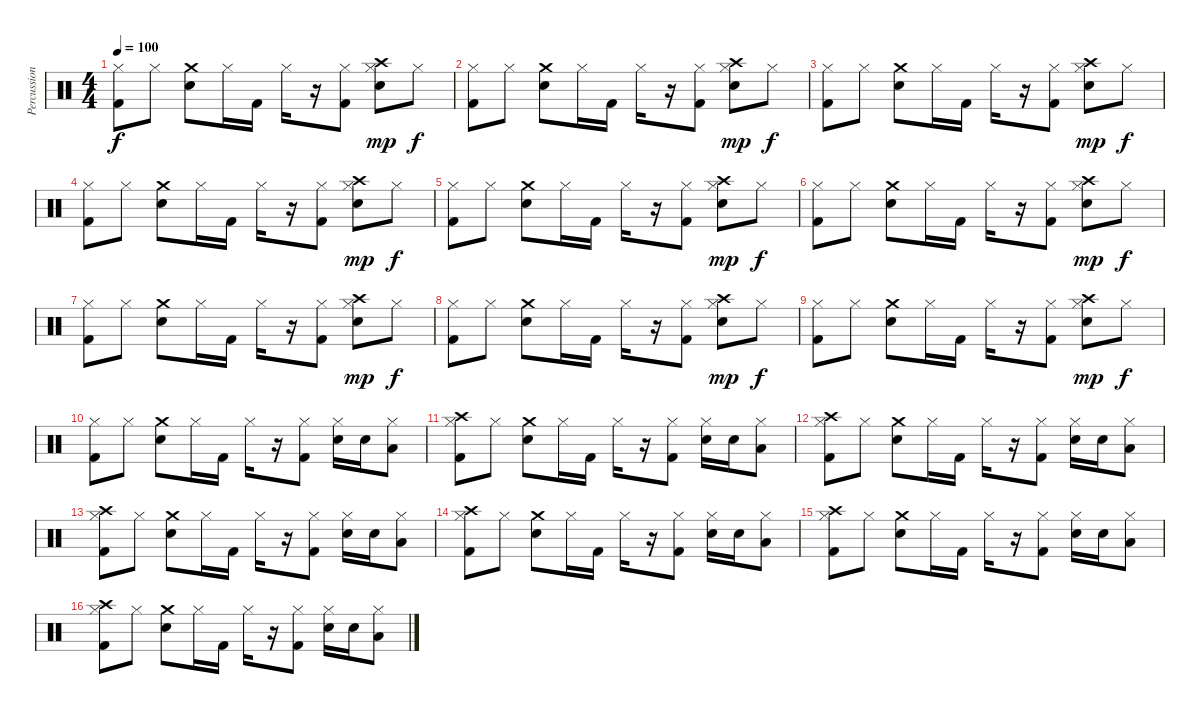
\track ("Percussion" "Percussion") {instrument percussion}
\staff {score}
\articulation defaults
\ts (4 4)
\tempo 100
\clef neutral
\ks c
("Hi-Hat (closed)" "Kick (hit) 2").8{dy f} "Hi-Hat (closed)".8 ("Crash medium (hit)" "Electric Snare (hit)").8 "Hi-Hat (closed)".16 "Kick (hit) 2".16 "Hi-Hat (closed)".16 r.16 ("Hi-Hat (closed)" "Kick (hit) 2").8 ("Hi-Hat (closed)" "Electric Snare (hit)" "Crash high (hit)").8{dy mp} "Hi-Hat (closed)".8{dy f} |
("Hi-Hat (closed)" "Kick (hit) 2").8 "Hi-Hat (closed)".8 ("Crash medium (hit)" "Electric Snare (hit)").8 "Hi-Hat (closed)".16 "Kick (hit) 2".16 "Hi-Hat (closed)".16 r.16 ("Hi-Hat (closed)" "Kick (hit) 2").8 ("Hi-Hat (closed)" "Electric Snare (hit)" "Crash high (hit)").8{dy mp} "Hi-Hat (closed)".8{dy f} |
("Hi-Hat (closed)" "Kick (hit) 2").8 "Hi-Hat (closed)".8 ("Crash medium (hit)" "Electric Snare (hit)").8 "Hi-Hat (closed)".16 "Kick (hit) 2".16 "Hi-Hat (closed)".16 r.16 ("Hi-Hat (closed)" "Kick (hit) 2").8 ("Hi-Hat (closed)" "Electric Snare (hit)" "Crash high (hit)").8{dy mp} "Hi-Hat (closed)".8{dy f} |
("Hi-Hat (closed)" "Kick (hit) 2").8 "Hi-Hat (closed)".8 ("Crash medium (hit)" "Electric Snare (hit)").8 "Hi-Hat (closed)".16 "Kick (hit) 2".16 "Hi-Hat (closed)".16 r.16 ("Hi-Hat (closed)" "Kick (hit) 2").8 ("Hi-Hat (closed)" "Electric Snare (hit)" "Crash high (hit)").8{dy mp} "Hi-Hat (closed)".8{dy f} |
("Hi-Hat (closed)" "Kick (hit) 2").8 "Hi-Hat (closed)".8 ("Crash medium (hit)" "Electric Snare (hit)").8 "Hi-Hat (closed)".16 "Kick (hit) 2".16 "Hi-Hat (closed)".16 r.16 ("Hi-Hat (closed)" "Kick (hit) 2").8 ("Hi-Hat (closed)" "Electric Snare (hit)" "Crash high (hit)").8{dy mp} "Hi-Hat (closed)".8{dy f} |
("Hi-Hat (closed)" "Kick (hit) 2").8 "Hi-Hat (closed)".8 ("Crash medium (hit)" "Electric Snare (hit)").8 "Hi-Hat (closed)".16 "Kick (hit) 2".16 "Hi-Hat (closed)".16 r.16 ("Hi-Hat (closed)" "Kick (hit) 2").8 ("Hi-Hat (closed)" "Electric Snare (hit)" "Crash high (hit)").8{dy mp} "Hi-Hat (closed)".8{dy f} |
("Hi-Hat (closed)" "Kick (hit) 2").8 "Hi-Hat (closed)".8 ("Crash medium (hit)" "Electric Snare (hit)").8 "Hi-Hat (closed)".16 "Kick (hit) 2".16 "Hi-Hat (closed)".16 r.16 ("Hi-Hat (closed)" "Kick (hit) 2").8 ("Hi-Hat (closed)" "Electric Snare (hit)" "Crash high (hit)").8{dy mp} "Hi-Hat (closed)".8{dy f} |
("Hi-Hat (closed)" "Kick (hit) 2").8 "Hi-Hat (closed)".8 ("Crash medium (hit)" "Electric Snare (hit)").8 "Hi-Hat (closed)".16 "Kick (hit) 2".16 "Hi-Hat (closed)".16 r.16 ("Hi-Hat (closed)" "Kick (hit) 2").8 ("Hi-Hat (closed)" "Electric Snare (hit)" "Crash high (hit)").8{dy mp} "Hi-Hat (closed)".8{dy f} |
("Hi-Hat (closed)" "Kick (hit) 2").8 "Hi-Hat (closed)".8 ("Crash medium (hit)" "Electric Snare (hit)").8 "Hi-Hat (closed)".16 "Kick (hit) 2".16 "Hi-Hat (closed)".16 r.16 ("Hi-Hat (closed)" "Kick (hit) 2").8 ("Hi-Hat (closed)" "Electric Snare (hit)" "Crash high (hit)").8{dy mp} "Hi-Hat (closed)".8{dy f} |
("Hi-Hat (closed)" "Kick (hit) 2").8 "Hi-Hat (closed)".8 ("Crash medium (hit)" "Electric Snare (hit)").8 "Hi-Hat (closed)".16 "Kick (hit) 2".16 "Hi-Hat (closed)".16 r.16 ("Hi-Hat (closed)" "Kick (hit) 2").8 ("Hi-Hat (closed)" "Electric Snare (hit)").16 "Electric Snare (hit)".16 ("Hi-Hat (closed)" "Low Floor Tom (hit)").8 |
("Hi-Hat (closed)" "Crash high (hit)" "Kick (hit) 2").8 "Hi-Hat (closed)".8 ("Crash medium (hit)" "Electric Snare (hit)").8 "Hi-Hat (closed)".16 "Kick (hit) 2".16 "Hi-Hat (closed)".16 r.16 ("Hi-Hat (closed)" "Kick (hit) 2").8 ("Hi-Hat (closed)" "Electric Snare (hit)").16 "Electric Snare (hit)".16 ("Hi-Hat (closed)" "Low Floor Tom (hit)").8 |
("Hi-Hat (closed)" "Crash high (hit)" "Kick (hit) 2").8 "Hi-Hat (closed)".8 ("Crash medium (hit)" "Electric Snare (hit)").8 "Hi-Hat (closed)".16 "Kick (hit) 2".16 "Hi-Hat (closed)".16 r.16 ("Hi-Hat (closed)" "Kick (hit) 2").8 ("Hi-Hat (closed)" "Electric Snare (hit)").16 "Electric Snare (hit)".16 ("Hi-Hat (closed)" "Low Floor Tom (hit)").8 |
("Hi-Hat (closed)" "Crash high (hit)" "Kick (hit) 2").8 "Hi-Hat (closed)".8 ("Crash medium (hit)" "Electric Snare (hit)").8 "Hi-Hat (closed)".16 "Kick (hit) 2".16 "Hi-Hat (closed)".16 r.16 ("Hi-Hat (closed)" "Kick (hit) 2").8 ("Hi-Hat (closed)" "Electric Snare (hit)").16 "Electric Snare (hit)".16 ("Hi-Hat (closed)" "Low Floor Tom (hit)").8 |
("Hi-Hat (closed)" "Crash high (hit)" "Kick (hit) 2").8 "Hi-Hat (closed)".8 ("Crash medium (hit)" "Electric Snare (hit)").8 "Hi-Hat (closed)".16 "Kick (hit) 2".16 "Hi-Hat (closed)".16 r.16 ("Hi-Hat (closed)" "Kick (hit) 2").8 ("Hi-Hat (closed)" "Electric Snare (hit)").16 "Electric Snare (hit)".16 ("Hi-Hat (closed)" "Low Floor Tom (hit)").8 |
("Hi-Hat (closed)" "Crash high (hit)" "Kick (hit) 2").8 "Hi-Hat (closed)".8 ("Crash medium (hit)" "Electric Snare (hit)").8 "Hi-Hat (closed)".16 "Kick (hit) 2".16 "Hi-Hat (closed)".16 r.16 ("Hi-Hat (closed)" "Kick (hit) 2").8 ("Hi-Hat (closed)" "Electric Snare (hit)").16 "Electric Snare (hit)".16 ("Hi-Hat (closed)" "Low Floor Tom (hit)").8 |
("Hi-Hat (closed)" "Crash high (hit)" "Kick (hit) 2").8 "Hi-Hat (closed)".8 ("Crash medium (hit)" "Electric Snare (hit)").8 "Hi-Hat (closed)".16 "Kick (hit) 2".16 "Hi-Hat (closed)".16 r.16 ("Hi-Hat (closed)" "Kick (hit) 2").8 ("Hi-Hat (closed)" "Electric Snare (hit)").16 "Electric Snare (hit)".16 ("Hi-Hat (closed)" "Low Floor Tom (hit)").8
